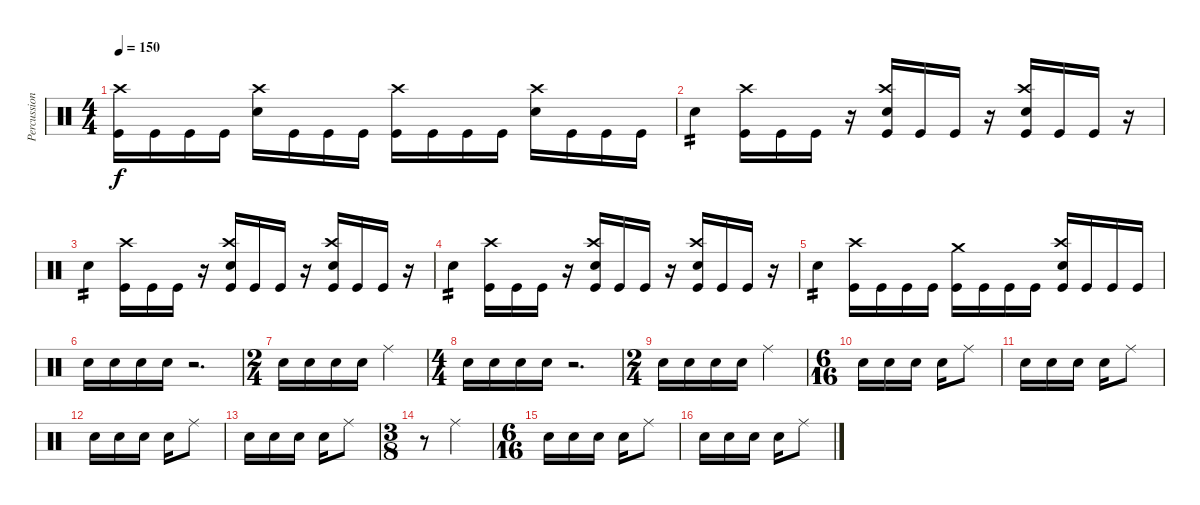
\track ("Percussion" "Percussion") {instrument percussion}
\staff {score}
\articulation defaults
\ts (4 4)
\tempo 150
\clef neutral
\ks c
("Kick (hit)" "Crash high (hit)").16{dy f} "Kick (hit)".16 "Kick (hit)".16 "Kick (hit)".16 ("Electric Snare (hit)" "Crash high (hit)").16 "Kick (hit)".16 "Kick (hit)".16 "Kick (hit)".16 ("Kick (hit)" "Crash high (hit)").16 "Kick (hit)".16 "Kick (hit)".16 "Kick (hit)".16 ("Electric Snare (hit)" "Crash high (hit)").16 "Kick (hit)".16 "Kick (hit)".16 "Kick (hit)".16 |
"Electric Snare (hit)".4{tp 2} ("Kick (hit)" "Crash high (hit)").16 "Kick (hit)".16 "Kick (hit)".16 r.16 ("Kick (hit)" "Electric Snare (hit)" "Crash high (hit)").16 "Kick (hit)".16 "Kick (hit)".16 r.16 ("Kick (hit)" "Electric Snare (hit)" "Crash high (hit)").16 "Kick (hit)".16 "Kick (hit)".16 r.16 |
"Electric Snare (hit)".4{tp 2} ("Kick (hit)" "Crash high (hit)").16 "Kick (hit)".16 "Kick (hit)".16 r.16 ("Kick (hit)" "Electric Snare (hit)" "Crash high (hit)").16 "Kick (hit)".16 "Kick (hit)".16 r.16 ("Kick (hit)" "Electric Snare (hit)" "Crash high (hit)").16 "Kick (hit)".16 "Kick (hit)".16 r.16 |
"Electric Snare (hit)".4{tp 2} ("Kick (hit)" "Crash high (hit)").16 "Kick (hit)".16 "Kick (hit)".16 r.16 ("Kick (hit)" "Electric Snare (hit)" "Crash high (hit)").16 "Kick (hit)".16 "Kick (hit)".16 r.16 ("Kick (hit)" "Electric Snare (hit)" "Crash high (hit)").16 "Kick (hit)".16 "Kick (hit)".16 r.16 |
"Electric Snare (hit)".4{tp 2} ("Kick (hit)" "Crash high (hit)").16 "Kick (hit)".16 "Kick (hit)".16 "Kick (hit)".16 ("Kick (hit)" "Crash medium (hit)").16 "Kick (hit)".16 "Kick (hit)".16 "Kick (hit)".16 ("Kick (hit)" "Electric Snare (hit)" "Crash high (hit)").16 "Kick (hit)".16 "Kick (hit)".16 "Kick (hit)".16 |
"Electric Snare (hit)".16 "Electric Snare (hit)".16 "Electric Snare (hit)".16 "Electric Snare (hit)".16 r.2{d} |
\ts (2 4)
"Electric Snare (hit)".16 "Electric Snare (hit)".16 "Electric Snare (hit)".16 "Electric Snare (hit)".16 "Ride (middle)".4 |
\ts (4 4)
"Electric Snare (hit)".16 "Electric Snare (hit)".16 "Electric Snare (hit)".16 "Electric Snare (hit)".16 r.2{d} |
\ts (2 4)
"Electric Snare (hit)".16 "Electric Snare (hit)".16 "Electric Snare (hit)".16 "Electric Snare (hit)".16 "Ride (middle)".4 |
\ts (6 16)
"Electric Snare (hit)".16 "Electric Snare (hit)".16 "Electric Snare (hit)".16 "Electric Snare (hit)".16 "Ride (middle)".8 |
"Electric Snare (hit)".16 "Electric Snare (hit)".16 "Electric Snare (hit)".16 "Electric Snare (hit)".16 "Ride (middle)".8 |
"Electric Snare (hit)".16 "Electric Snare (hit)".16 "Electric Snare (hit)".16 "Electric Snare (hit)".16 "Ride (middle)".8 |
"Electric Snare (hit)".16 "Electric Snare (hit)".16 "Electric Snare (hit)".16 "Electric Snare (hit)".16 "Ride (middle)".8 |
\ts (3 8)
r.8 "Ride (middle)".4 |
\ts (6 16)
"Electric Snare (hit)".16 "Electric Snare (hit)".16 "Electric Snare (hit)".16 "Electric Snare (hit)".16 "Ride (middle)".8 |
"Electric Snare (hit)".16 "Electric Snare (hit)".16 "Electric Snare (hit)".16 "Electric Snare (hit)".16 "Ride (middle)".8
